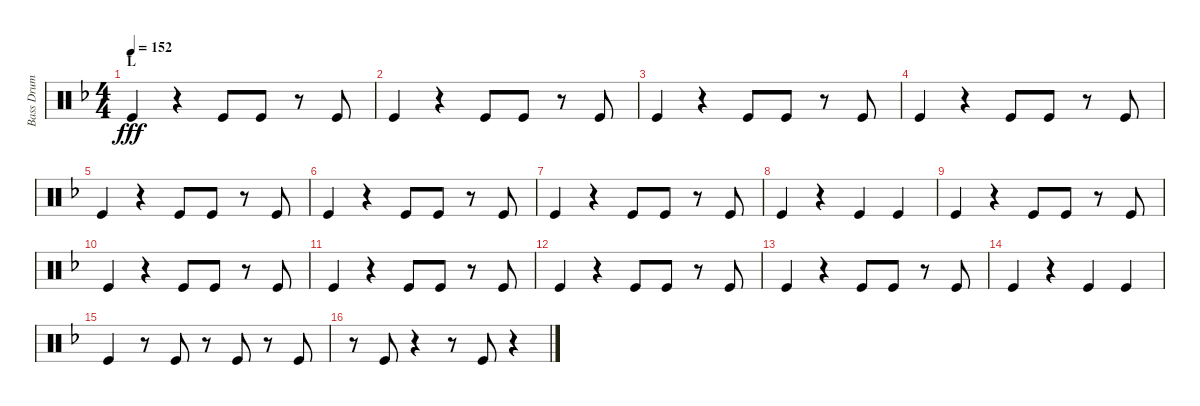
\track ("Bass Drum" "Bass Drum") {instrument percussion}
\staff {score}
\articulation defaults
\ts (4 4)
\section ("" "L")
\tempo 152
\clef neutral
\ks f "Kick (hit)".4{dy fff}
r.4 "Kick (hit)".8 "Kick (hit)".8 r.8 "Kick (hit)".8 |
"Kick (hit)".4 r.4 "Kick (hit)".8 "Kick (hit)".8 r.8 "Kick (hit)".8 |
"Kick (hit)".4 r.4 "Kick (hit)".8 "Kick (hit)".8 r.8 "Kick (hit)".8 |
"Kick (hit)".4 r.4 "Kick (hit)".8 "Kick (hit)".8 r.8 "Kick (hit)".8 |
"Kick (hit)".4 r.4 "Kick (hit)".8 "Kick (hit)".8 r.8 "Kick (hit)".8 |
"Kick (hit)".4 r.4 "Kick (hit)".8 "Kick (hit)".8 r.8 "Kick (hit)".8 |
"Kick (hit)".4 r.4 "Kick (hit)".8 "Kick (hit)".8 r.8 "Kick (hit)".8 |
"Kick (hit)".4 r.4 "Kick (hit)".4 "Kick (hit)".4 |
"Kick (hit)".4 r.4 "Kick (hit)".8 "Kick (hit)".8 r.8 "Kick (hit)".8 |
"Kick (hit)".4 r.4 "Kick (hit)".8 "Kick (hit)".8 r.8 "Kick (hit)".8 |
"Kick (hit)".4 r.4 "Kick (hit)".8 "Kick (hit)".8 r.8 "Kick (hit)".8 |
"Kick (hit)".4 r.4 "Kick (hit)".8 "Kick (hit)".8 r.8 "Kick (hit)".8 |
"Kick (hit)".4 r.4 "Kick (hit)".8 "Kick (hit)".8 r.8 "Kick (hit)".8 |
"Kick (hit)".4 r.4 "Kick (hit)".4 "Kick (hit)".4 |
"Kick (hit)".4 r.8 "Kick (hit)".8 r.8 "Kick (hit)".8 r.8 "Kick (hit)".8 |
r.8 "Kick (hit)".8 r.4 r.8 "Kick (hit)".8 r.4
